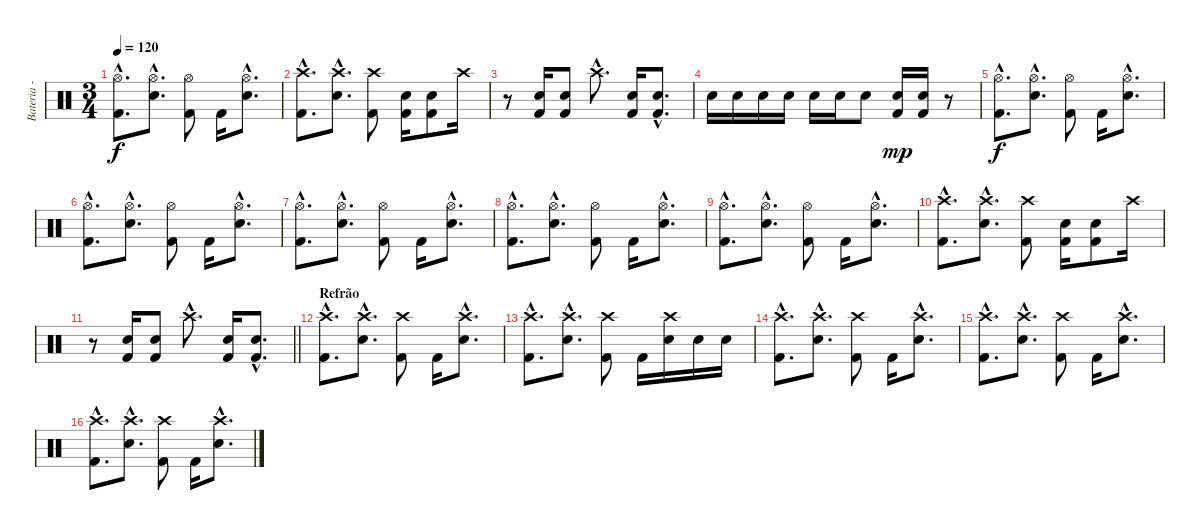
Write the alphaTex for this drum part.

\track ("Bateria - Larzon" "Bateria - ") {instrument percussion}
\staff {score}
\articulation defaults
\ts (3 4)
\tempo 120
\clef neutral
\ks c
("Kick (hit) 2"{hac} "Hi-Hat (open)"{hac}).8{d dy f} ("Snare (hit) 2"{hac} "Hi-Hat (open)"{hac}).8{d} ("Kick (hit) 2" "Hi-Hat (open)").8 "Kick (hit) 2".16 ("Snare (hit) 2"{hac} "Hi-Hat (open)"{hac}).8{d} |
("Kick (hit) 2"{hac} "Crash high (hit)"{hac}).8{d} ("Snare (hit) 2"{hac} "Crash high (hit)"{hac}).8{d} ("Kick (hit) 2" "Crash high (hit)").8 ("Snare (hit) 2" "Kick (hit) 2").16 ("Snare (hit) 2" "Kick (hit) 2").8 "Crash high (hit)".16 |
r.8 ("Snare (hit) 2" "Kick (hit) 2").16 ("Snare (hit) 2" "Kick (hit) 2").8 "Crash high (hit)"{hac}.8{d} ("Snare (hit) 2" "Kick (hit) 2").16 ("Snare (hit) 2"{hac} "Kick (hit) 2"{hac}).8{d} |
"Snare (hit) 2".16 "Snare (hit) 2".16 "Snare (hit) 2".16 "Snare (hit) 2".16 "Snare (hit) 2".16 "Snare (hit) 2".16 "Snare (hit) 2".8 ("Kick (hit) 2" "Snare (hit) 2").16{dy mp} ("Kick (hit) 2" "Snare (hit) 2").16 r.8 |
("Kick (hit) 2"{hac} "Hi-Hat (open)"{hac}).8{d dy f} ("Snare (hit) 2"{hac} "Hi-Hat (open)"{hac}).8{d} ("Kick (hit) 2" "Hi-Hat (open)").8 "Kick (hit) 2".16 ("Snare (hit) 2"{hac} "Hi-Hat (open)"{hac}).8{d} |
("Kick (hit) 2"{hac} "Hi-Hat (open)"{hac}).8{d} ("Snare (hit) 2"{hac} "Hi-Hat (open)"{hac}).8{d} ("Kick (hit) 2" "Hi-Hat (open)").8 "Kick (hit) 2".16 ("Snare (hit) 2"{hac} "Hi-Hat (open)"{hac}).8{d} |
("Kick (hit) 2"{hac} "Hi-Hat (open)"{hac}).8{d} ("Snare (hit) 2"{hac} "Hi-Hat (open)"{hac}).8{d} ("Kick (hit) 2" "Hi-Hat (open)").8 "Kick (hit) 2".16 ("Snare (hit) 2"{hac} "Hi-Hat (open)"{hac}).8{d} |
("Kick (hit) 2"{hac} "Hi-Hat (open)"{hac}).8{d} ("Snare (hit) 2"{hac} "Hi-Hat (open)"{hac}).8{d} ("Kick (hit) 2" "Hi-Hat (open)").8 "Kick (hit) 2".16 ("Snare (hit) 2"{hac} "Hi-Hat (open)"{hac}).8{d} |
("Kick (hit) 2"{hac} "Hi-Hat (open)"{hac}).8{d} ("Snare (hit) 2"{hac} "Hi-Hat (open)"{hac}).8{d} ("Kick (hit) 2" "Hi-Hat (open)").8 "Kick (hit) 2".16 ("Snare (hit) 2"{hac} "Hi-Hat (open)"{hac}).8{d} |
("Kick (hit) 2"{hac} "Crash high (hit)"{hac}).8{d} ("Snare (hit) 2"{hac} "Crash high (hit)"{hac}).8{d} ("Kick (hit) 2" "Crash high (hit)").8 ("Snare (hit) 2" "Kick (hit) 2").16 ("Snare (hit) 2" "Kick (hit) 2").8 "Crash high (hit)".16 |
\barLineRight lightlight
r.8 ("Snare (hit) 2" "Kick (hit) 2").16 ("Snare (hit) 2" "Kick (hit) 2").8 "Crash high (hit)"{hac}.8{d} ("Snare (hit) 2" "Kick (hit) 2").16 ("Snare (hit) 2"{hac} "Kick (hit) 2"{hac}).8{d} |
\section ("" "Refrão")
("Kick (hit) 2"{hac} "Crash high (hit)"{hac}).8{d} ("Snare (hit) 2"{hac} "Crash high (hit)"{hac}).8{d} ("Kick (hit) 2" "Crash high (hit)").8 "Kick (hit) 2".16 ("Snare (hit) 2"{hac} "Crash high (hit)"{hac}).8{d} |
("Kick (hit) 2"{hac} "Crash high (hit)"{hac}).8{d} ("Snare (hit) 2"{hac} "Crash high (hit)"{hac}).8{d} ("Kick (hit) 2" "Crash high (hit)").8 "Kick (hit) 2".16 ("Snare (hit) 2" "Crash high (hit)").16 "Snare (hit) 2".16 "Snare (hit) 2".16 |
("Kick (hit) 2"{hac} "Crash high (hit)"{hac}).8{d} ("Snare (hit) 2"{hac} "Crash high (hit)"{hac}).8{d} ("Kick (hit) 2" "Crash high (hit)").8 "Kick (hit) 2".16 ("Snare (hit) 2"{hac} "Crash high (hit)"{hac}).8{d} |
("Kick (hit) 2"{hac} "Crash high (hit)"{hac}).8{d} ("Snare (hit) 2"{hac} "Crash high (hit)"{hac}).8{d} ("Kick (hit) 2" "Crash high (hit)").8 "Kick (hit) 2".16 ("Snare (hit) 2"{hac} "Crash high (hit)"{hac}).8{d} |
("Kick (hit) 2"{hac} "Crash high (hit)"{hac}).8{d} ("Snare (hit) 2"{hac} "Crash high (hit)"{hac}).8{d} ("Kick (hit) 2" "Crash high (hit)").8 "Kick (hit) 2".16 ("Snare (hit) 2"{hac} "Crash high (hit)"{hac}).8{d}
